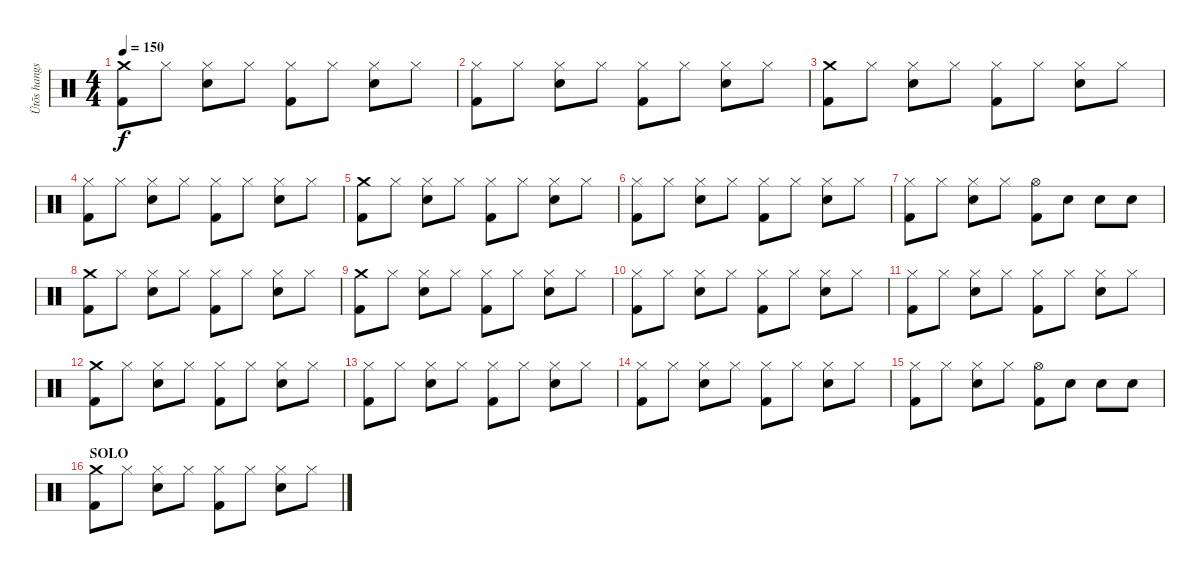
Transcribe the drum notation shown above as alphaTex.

\track ("Ütõs hangszer" "Ütõs hangs") {instrument percussion}
\staff {score}
\articulation defaults
\ts (4 4)
\tempo 150
\clef neutral
\ks c
("Crash medium (hit)" "Kick (hit) 2").8{dy f} "Hi-Hat (closed)".8 ("Hi-Hat (closed)" "Electric Snare (hit)").8 "Hi-Hat (closed)".8 ("Hi-Hat (closed)" "Kick (hit) 2").8 "Hi-Hat (closed)".8 ("Hi-Hat (closed)" "Electric Snare (hit)").8 "Hi-Hat (closed)".8 |
("Hi-Hat (closed)" "Kick (hit) 2").8 "Hi-Hat (closed)".8 ("Hi-Hat (closed)" "Electric Snare (hit)").8 "Hi-Hat (closed)".8 ("Hi-Hat (closed)" "Kick (hit) 2").8 "Hi-Hat (closed)".8 ("Hi-Hat (closed)" "Electric Snare (hit)").8 "Hi-Hat (closed)".8 |
("Crash medium (hit)" "Kick (hit) 2").8 "Hi-Hat (closed)".8 ("Hi-Hat (closed)" "Electric Snare (hit)").8 "Hi-Hat (closed)".8 ("Hi-Hat (closed)" "Kick (hit) 2").8 "Hi-Hat (closed)".8 ("Hi-Hat (closed)" "Electric Snare (hit)").8 "Hi-Hat (closed)".8 |
("Hi-Hat (closed)" "Kick (hit) 2").8 "Hi-Hat (closed)".8 ("Hi-Hat (closed)" "Electric Snare (hit)").8 "Hi-Hat (closed)".8 ("Hi-Hat (closed)" "Kick (hit) 2").8 "Hi-Hat (closed)".8 ("Hi-Hat (closed)" "Electric Snare (hit)").8 "Hi-Hat (closed)".8 |
("Crash medium (hit)" "Kick (hit) 2").8 "Hi-Hat (closed)".8 ("Hi-Hat (closed)" "Electric Snare (hit)").8 "Hi-Hat (closed)".8 ("Hi-Hat (closed)" "Kick (hit) 2").8 "Hi-Hat (closed)".8 ("Hi-Hat (closed)" "Electric Snare (hit)").8 "Hi-Hat (closed)".8 |
("Hi-Hat (closed)" "Kick (hit) 2").8 "Hi-Hat (closed)".8 ("Hi-Hat (closed)" "Electric Snare (hit)").8 "Hi-Hat (closed)".8 ("Hi-Hat (closed)" "Kick (hit) 2").8 "Hi-Hat (closed)".8 ("Hi-Hat (closed)" "Electric Snare (hit)").8 "Hi-Hat (closed)".8 |
("Hi-Hat (closed)" "Kick (hit) 2").8 "Hi-Hat (closed)".8 ("Hi-Hat (closed)" "Electric Snare (hit)").8 "Hi-Hat (closed)".8 ("Hi-Hat (open)" "Kick (hit) 2").8 "Electric Snare (hit)".8 "Electric Snare (hit)".8 "Electric Snare (hit)".8 |
("Crash medium (hit)" "Kick (hit) 2").8 "Hi-Hat (closed)".8 ("Hi-Hat (closed)" "Electric Snare (hit)").8 "Hi-Hat (closed)".8 ("Hi-Hat (closed)" "Kick (hit) 2").8 "Hi-Hat (closed)".8 ("Hi-Hat (closed)" "Electric Snare (hit)").8 "Hi-Hat (closed)".8 |
("Crash medium (hit)" "Kick (hit) 2").8 "Hi-Hat (closed)".8 ("Hi-Hat (closed)" "Electric Snare (hit)").8 "Hi-Hat (closed)".8 ("Hi-Hat (closed)" "Kick (hit) 2").8 "Hi-Hat (closed)".8 ("Hi-Hat (closed)" "Electric Snare (hit)").8 "Hi-Hat (closed)".8 |
("Hi-Hat (closed)" "Kick (hit) 2").8 "Hi-Hat (closed)".8 ("Hi-Hat (closed)" "Electric Snare (hit)").8 "Hi-Hat (closed)".8 ("Hi-Hat (closed)" "Kick (hit) 2").8 "Hi-Hat (closed)".8 ("Hi-Hat (closed)" "Electric Snare (hit)").8 "Hi-Hat (closed)".8 |
("Hi-Hat (closed)" "Kick (hit) 2").8 "Hi-Hat (closed)".8 ("Hi-Hat (closed)" "Electric Snare (hit)").8 "Hi-Hat (closed)".8 ("Hi-Hat (closed)" "Kick (hit) 2").8 "Hi-Hat (closed)".8 ("Hi-Hat (closed)" "Electric Snare (hit)").8 "Hi-Hat (closed)".8 |
("Crash medium (hit)" "Kick (hit) 2").8 "Hi-Hat (closed)".8 ("Hi-Hat (closed)" "Electric Snare (hit)").8 "Hi-Hat (closed)".8 ("Hi-Hat (closed)" "Kick (hit) 2").8 "Hi-Hat (closed)".8 ("Hi-Hat (closed)" "Electric Snare (hit)").8 "Hi-Hat (closed)".8 |
("Hi-Hat (closed)" "Kick (hit) 2").8 "Hi-Hat (closed)".8 ("Hi-Hat (closed)" "Electric Snare (hit)").8 "Hi-Hat (closed)".8 ("Hi-Hat (closed)" "Kick (hit) 2").8 "Hi-Hat (closed)".8 ("Hi-Hat (closed)" "Electric Snare (hit)").8 "Hi-Hat (closed)".8 |
("Hi-Hat (closed)" "Kick (hit) 2").8 "Hi-Hat (closed)".8 ("Hi-Hat (closed)" "Electric Snare (hit)").8 "Hi-Hat (closed)".8 ("Hi-Hat (closed)" "Kick (hit) 2").8 "Hi-Hat (closed)".8 ("Hi-Hat (closed)" "Electric Snare (hit)").8 "Hi-Hat (closed)".8 |
("Hi-Hat (closed)" "Kick (hit) 2").8 "Hi-Hat (closed)".8 ("Hi-Hat (closed)" "Electric Snare (hit)").8 "Hi-Hat (closed)".8 ("Hi-Hat (open)" "Kick (hit) 2").8 "Electric Snare (hit)".8 "Electric Snare (hit)".8 "Electric Snare (hit)".8 |
\section ("" "SOLO")
("Crash medium (hit)" "Kick (hit) 2").8 "Hi-Hat (closed)".8 ("Hi-Hat (closed)" "Electric Snare (hit)").8 "Hi-Hat (closed)".8 ("Hi-Hat (closed)" "Kick (hit) 2").8 "Hi-Hat (closed)".8 ("Hi-Hat (closed)" "Electric Snare (hit)").8 "Hi-Hat (closed)".8
